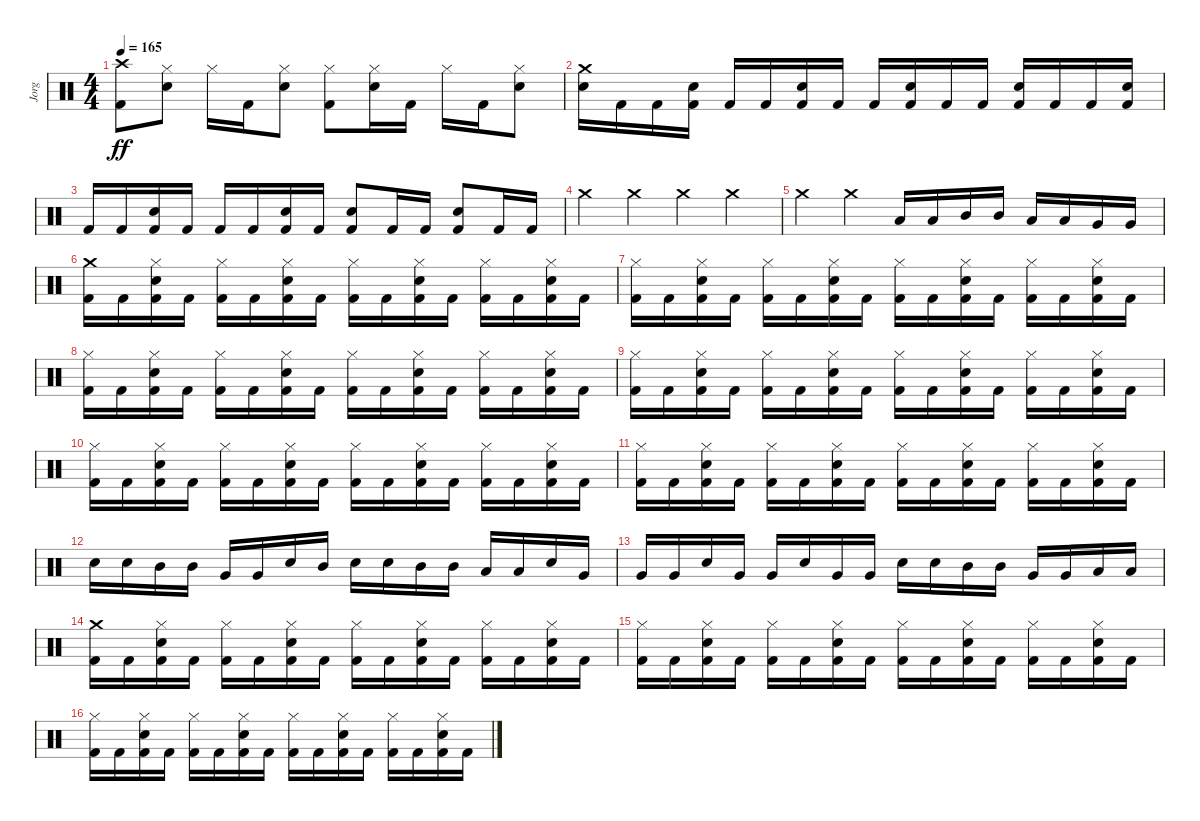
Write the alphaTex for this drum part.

\track ("Jorg" "Jorg") {instrument percussion}
\staff {score}
\articulation defaults
\ts (4 4)
\tempo 165
\clef neutral
\ks c
("Kick (hit) 2" "Crash high (hit)").8{dy ff} ("Snare (hit) 2" "Hi-Hat (closed)").8 "Hi-Hat (closed)".16 "Kick (hit) 2".16 ("Snare (hit) 2" "Hi-Hat (closed)").8 ("Kick (hit) 2" "Hi-Hat (closed)").8 ("Snare (hit) 2" "Hi-Hat (closed)").16 "Kick (hit) 2".16 "Hi-Hat (closed)".16 "Kick (hit) 2".16 ("Snare (hit) 2" "Hi-Hat (closed)").8 |
("Crash medium (hit)" "Electric Snare (hit)").16 "Kick (hit) 2".16 "Kick (hit) 2".16 ("Electric Snare (hit)" "Kick (hit) 2").16 "Kick (hit) 2".16 "Kick (hit) 2".16 ("Electric Snare (hit)" "Kick (hit) 2").16 "Kick (hit) 2".16 "Kick (hit) 2".16 ("Electric Snare (hit)" "Kick (hit) 2").16 "Kick (hit) 2".16 "Kick (hit) 2".16 ("Electric Snare (hit)" "Kick (hit) 2").16 "Kick (hit) 2".16 "Kick (hit) 2".16 ("Electric Snare (hit)" "Kick (hit) 2").16 |
"Kick (hit) 2".16 "Kick (hit) 2".16 ("Electric Snare (hit)" "Kick (hit) 2").16 "Kick (hit) 2".16 "Kick (hit) 2".16 "Kick (hit) 2".16 ("Electric Snare (hit)" "Kick (hit) 2").16 "Kick (hit) 2".16 ("Electric Snare (hit)" "Kick (hit) 2").8 "Kick (hit) 2".16 "Kick (hit) 2".16 ("Electric Snare (hit)" "Kick (hit) 2").8 "Kick (hit) 2".16 "Kick (hit) 2".16 |
"Crash medium (hit)".4 "Crash medium (hit)".4 "Crash medium (hit)".4 "Crash medium (hit)".4 |
"Crash medium (hit)".4 "Crash medium (hit)".4 "Low Floor Tom (hit)".16 "Low Floor Tom (hit)".16 "Mid Tom (hit)".16 "Mid Tom (hit)".16 "Low Tom (hit)".16 "Low Tom (hit)".16 "Very Low Tom (hit)".16 "Very Low Tom (hit)".16 |
("Crash medium (hit)" "Kick (hit) 2").16 "Kick (hit) 2".16 ("Hi-Hat (closed)" "Electric Snare (hit)" "Kick (hit) 2").16 "Kick (hit) 2".16 ("Hi-Hat (closed)" "Kick (hit) 2").16 "Kick (hit) 2".16 ("Hi-Hat (closed)" "Electric Snare (hit)" "Kick (hit) 2").16 "Kick (hit) 2".16 ("Hi-Hat (closed)" "Kick (hit) 2").16 "Kick (hit) 2".16 ("Hi-Hat (closed)" "Electric Snare (hit)" "Kick (hit) 2").16 "Kick (hit) 2".16 ("Hi-Hat (closed)" "Kick (hit) 2").16 "Kick (hit) 2".16 ("Hi-Hat (closed)" "Electric Snare (hit)" "Kick (hit) 2").16 "Kick (hit) 2".16 |
("Hi-Hat (closed)" "Kick (hit) 2").16 "Kick (hit) 2".16 ("Hi-Hat (closed)" "Electric Snare (hit)" "Kick (hit) 2").16 "Kick (hit) 2".16 ("Hi-Hat (closed)" "Kick (hit) 2").16 "Kick (hit) 2".16 ("Hi-Hat (closed)" "Electric Snare (hit)" "Kick (hit) 2").16 "Kick (hit) 2".16 ("Hi-Hat (closed)" "Kick (hit) 2").16 "Kick (hit) 2".16 ("Hi-Hat (closed)" "Electric Snare (hit)" "Kick (hit) 2").16 "Kick (hit) 2".16 ("Hi-Hat (closed)" "Kick (hit) 2").16 "Kick (hit) 2".16 ("Hi-Hat (closed)" "Electric Snare (hit)" "Kick (hit) 2").16 "Kick (hit) 2".16 |
("Hi-Hat (closed)" "Kick (hit) 2").16 "Kick (hit) 2".16 ("Hi-Hat (closed)" "Electric Snare (hit)" "Kick (hit) 2").16 "Kick (hit) 2".16 ("Hi-Hat (closed)" "Kick (hit) 2").16 "Kick (hit) 2".16 ("Hi-Hat (closed)" "Electric Snare (hit)" "Kick (hit) 2").16 "Kick (hit) 2".16 ("Hi-Hat (closed)" "Kick (hit) 2").16 "Kick (hit) 2".16 ("Hi-Hat (closed)" "Electric Snare (hit)" "Kick (hit) 2").16 "Kick (hit) 2".16 ("Hi-Hat (closed)" "Kick (hit) 2").16 "Kick (hit) 2".16 ("Hi-Hat (closed)" "Electric Snare (hit)" "Kick (hit) 2").16 "Kick (hit) 2".16 |
("Hi-Hat (closed)" "Kick (hit) 2").16 "Kick (hit) 2".16 ("Hi-Hat (closed)" "Electric Snare (hit)" "Kick (hit) 2").16 "Kick (hit) 2".16 ("Hi-Hat (closed)" "Kick (hit) 2").16 "Kick (hit) 2".16 ("Hi-Hat (closed)" "Electric Snare (hit)" "Kick (hit) 2").16 "Kick (hit) 2".16 ("Hi-Hat (closed)" "Kick (hit) 2").16 "Kick (hit) 2".16 ("Hi-Hat (closed)" "Electric Snare (hit)" "Kick (hit) 2").16 "Kick (hit) 2".16 ("Hi-Hat (closed)" "Kick (hit) 2").16 "Kick (hit) 2".16 ("Hi-Hat (closed)" "Electric Snare (hit)" "Kick (hit) 2").16 "Kick (hit) 2".16 |
("Hi-Hat (closed)" "Kick (hit) 2").16 "Kick (hit) 2".16 ("Hi-Hat (closed)" "Electric Snare (hit)" "Kick (hit) 2").16 "Kick (hit) 2".16 ("Hi-Hat (closed)" "Kick (hit) 2").16 "Kick (hit) 2".16 ("Hi-Hat (closed)" "Electric Snare (hit)" "Kick (hit) 2").16 "Kick (hit) 2".16 ("Hi-Hat (closed)" "Kick (hit) 2").16 "Kick (hit) 2".16 ("Hi-Hat (closed)" "Electric Snare (hit)" "Kick (hit) 2").16 "Kick (hit) 2".16 ("Hi-Hat (closed)" "Kick (hit) 2").16 "Kick (hit) 2".16 ("Hi-Hat (closed)" "Electric Snare (hit)" "Kick (hit) 2").16 "Kick (hit) 2".16 |
("Hi-Hat (closed)" "Kick (hit) 2").16 "Kick (hit) 2".16 ("Hi-Hat (closed)" "Electric Snare (hit)" "Kick (hit) 2").16 "Kick (hit) 2".16 ("Hi-Hat (closed)" "Kick (hit) 2").16 "Kick (hit) 2".16 ("Hi-Hat (closed)" "Electric Snare (hit)" "Kick (hit) 2").16 "Kick (hit) 2".16 ("Hi-Hat (closed)" "Kick (hit) 2").16 "Kick (hit) 2".16 ("Hi-Hat (closed)" "Electric Snare (hit)" "Kick (hit) 2").16 "Kick (hit) 2".16 ("Hi-Hat (closed)" "Kick (hit) 2").16 "Kick (hit) 2".16 ("Hi-Hat (closed)" "Electric Snare (hit)" "Kick (hit) 2").16 "Kick (hit) 2".16 |
"Electric Snare (hit)".16 "Electric Snare (hit)".16 "Mid Tom (hit)".16 "Mid Tom (hit)".16 "Very Low Tom (hit)".16 "Very Low Tom (hit)".16 "Electric Snare (hit)".16 "Mid Tom (hit)".16 "Electric Snare (hit)".16 "Electric Snare (hit)".16 "Mid Tom (hit)".16 "Mid Tom (hit)".16 "Low Tom (hit)".16 "Low Tom (hit)".16 "Electric Snare (hit)".16 "Very Low Tom (hit)".16 |
"Very Low Tom (hit)".16 "Very Low Tom (hit)".16 "Electric Snare (hit)".16 "Very Low Tom (hit)".16 "Very Low Tom (hit)".16 "Electric Snare (hit)".16 "Very Low Tom (hit)".16 "Very Low Tom (hit)".16 "Electric Snare (hit)".16 "Electric Snare (hit)".16 "Mid Tom (hit)".16 "Mid Tom (hit)".16 "Very Low Tom (hit)".16 "Very Low Tom (hit)".16 "Low Floor Tom (hit)".16 "Low Floor Tom (hit)".16 |
("Crash medium (hit)" "Kick (hit) 2").16 "Kick (hit) 2".16 ("Hi-Hat (closed)" "Electric Snare (hit)" "Kick (hit) 2").16 "Kick (hit) 2".16 ("Hi-Hat (closed)" "Kick (hit) 2").16 "Kick (hit) 2".16 ("Hi-Hat (closed)" "Electric Snare (hit)" "Kick (hit) 2").16 "Kick (hit) 2".16 ("Hi-Hat (closed)" "Kick (hit) 2").16 "Kick (hit) 2".16 ("Hi-Hat (closed)" "Electric Snare (hit)" "Kick (hit) 2").16 "Kick (hit) 2".16 ("Hi-Hat (closed)" "Kick (hit) 2").16 "Kick (hit) 2".16 ("Hi-Hat (closed)" "Electric Snare (hit)" "Kick (hit) 2").16 "Kick (hit) 2".16 |
("Hi-Hat (closed)" "Kick (hit) 2").16 "Kick (hit) 2".16 ("Hi-Hat (closed)" "Electric Snare (hit)" "Kick (hit) 2").16 "Kick (hit) 2".16 ("Hi-Hat (closed)" "Kick (hit) 2").16 "Kick (hit) 2".16 ("Hi-Hat (closed)" "Electric Snare (hit)" "Kick (hit) 2").16 "Kick (hit) 2".16 ("Hi-Hat (closed)" "Kick (hit) 2").16 "Kick (hit) 2".16 ("Hi-Hat (closed)" "Electric Snare (hit)" "Kick (hit) 2").16 "Kick (hit) 2".16 ("Hi-Hat (closed)" "Kick (hit) 2").16 "Kick (hit) 2".16 ("Hi-Hat (closed)" "Electric Snare (hit)" "Kick (hit) 2").16 "Kick (hit) 2".16 |
("Hi-Hat (closed)" "Kick (hit) 2").16 "Kick (hit) 2".16 ("Hi-Hat (closed)" "Electric Snare (hit)" "Kick (hit) 2").16 "Kick (hit) 2".16 ("Hi-Hat (closed)" "Kick (hit) 2").16 "Kick (hit) 2".16 ("Hi-Hat (closed)" "Electric Snare (hit)" "Kick (hit) 2").16 "Kick (hit) 2".16 ("Hi-Hat (closed)" "Kick (hit) 2").16 "Kick (hit) 2".16 ("Hi-Hat (closed)" "Electric Snare (hit)" "Kick (hit) 2").16 "Kick (hit) 2".16 ("Hi-Hat (closed)" "Kick (hit) 2").16 "Kick (hit) 2".16 ("Hi-Hat (closed)" "Electric Snare (hit)" "Kick (hit) 2").16 "Kick (hit) 2".16
